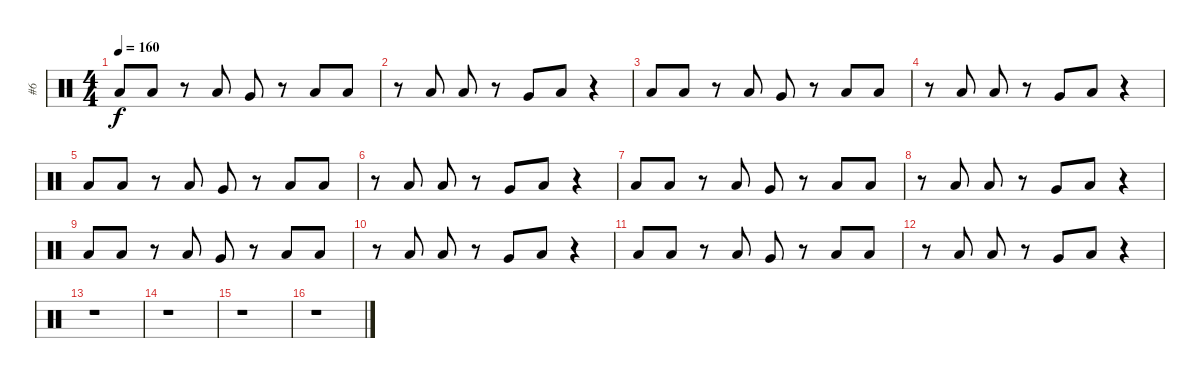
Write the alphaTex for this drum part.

\track ("#6" "#6") {instrument percussion}
\staff {score}
\articulation defaults
\ts (4 4)
\tempo 160
\clef neutral
\ks c "Low Tom (hit)".8{dy f} "Low Tom (hit)".8
r.8 "Low Tom (hit)".8 "Very Low Tom (hit)".8 r.8 "Low Tom (hit)".8 "Low Tom (hit)".8 |
r.8 "Low Tom (hit)".8 "Low Tom (hit)".8 r.8 "Very Low Tom (hit)".8 "Low Tom (hit)".8 r.4 |
"Low Tom (hit)".8 "Low Tom (hit)".8 r.8 "Low Tom (hit)".8 "Very Low Tom (hit)".8 r.8 "Low Tom (hit)".8 "Low Tom (hit)".8 |
r.8 "Low Tom (hit)".8 "Low Tom (hit)".8 r.8 "Very Low Tom (hit)".8 "Low Tom (hit)".8 r.4 |
"Low Tom (hit)".8 "Low Tom (hit)".8 r.8 "Low Tom (hit)".8 "Very Low Tom (hit)".8 r.8 "Low Tom (hit)".8 "Low Tom (hit)".8 |
r.8 "Low Tom (hit)".8 "Low Tom (hit)".8 r.8 "Very Low Tom (hit)".8 "Low Tom (hit)".8 r.4 |
"Low Tom (hit)".8 "Low Tom (hit)".8 r.8 "Low Tom (hit)".8 "Very Low Tom (hit)".8 r.8 "Low Tom (hit)".8 "Low Tom (hit)".8 |
r.8 "Low Tom (hit)".8 "Low Tom (hit)".8 r.8 "Very Low Tom (hit)".8 "Low Tom (hit)".8 r.4 |
"Low Tom (hit)".8 "Low Tom (hit)".8 r.8 "Low Tom (hit)".8 "Very Low Tom (hit)".8 r.8 "Low Tom (hit)".8 "Low Tom (hit)".8 |
r.8 "Low Tom (hit)".8 "Low Tom (hit)".8 r.8 "Very Low Tom (hit)".8 "Low Tom (hit)".8 r.4 |
"Low Tom (hit)".8 "Low Tom (hit)".8 r.8 "Low Tom (hit)".8 "Very Low Tom (hit)".8 r.8 "Low Tom (hit)".8 "Low Tom (hit)".8 |
r.8 "Low Tom (hit)".8 "Low Tom (hit)".8 r.8 "Very Low Tom (hit)".8 "Low Tom (hit)".8 r.4 |
r.1 |
r.1 |
r.1 |
r.1
